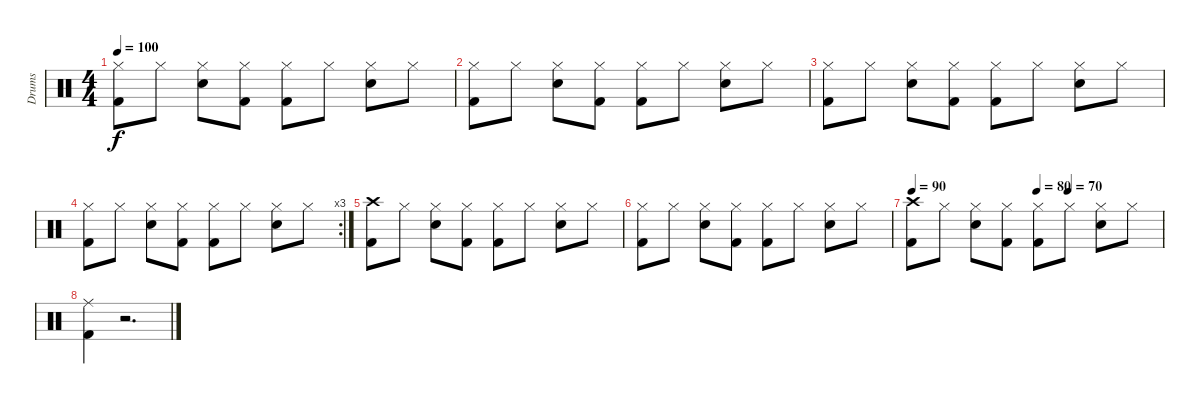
\track ("Drums" "Drums") {instrument percussion}
\staff {score}
\articulation defaults
\ts (4 4)
\tempo 100
\clef neutral
\ks c
("Hi-Hat (closed)" "Kick (hit) 2").8{dy f} "Hi-Hat (closed)".8 ("Hi-Hat (closed)" "Snare (hit) 2").8 ("Hi-Hat (closed)" "Kick (hit) 2").8 ("Hi-Hat (closed)" "Kick (hit) 2").8 "Hi-Hat (closed)".8 ("Hi-Hat (closed)" "Snare (hit) 2").8 "Hi-Hat (closed)".8 |
("Hi-Hat (closed)" "Kick (hit) 2").8 "Hi-Hat (closed)".8 ("Hi-Hat (closed)" "Snare (hit) 2").8 ("Hi-Hat (closed)" "Kick (hit) 2").8 ("Hi-Hat (closed)" "Kick (hit) 2").8 "Hi-Hat (closed)".8 ("Hi-Hat (closed)" "Snare (hit) 2").8 "Hi-Hat (closed)".8 |
("Hi-Hat (closed)" "Kick (hit) 2").8 "Hi-Hat (closed)".8 ("Hi-Hat (closed)" "Snare (hit) 2").8 ("Hi-Hat (closed)" "Kick (hit) 2").8 ("Hi-Hat (closed)" "Kick (hit) 2").8 "Hi-Hat (closed)".8 ("Hi-Hat (closed)" "Snare (hit) 2").8 "Hi-Hat (closed)".8 |
\rc 3
("Hi-Hat (closed)" "Kick (hit) 2").8 "Hi-Hat (closed)".8 ("Hi-Hat (closed)" "Snare (hit) 2").8 ("Hi-Hat (closed)" "Kick (hit) 2").8 ("Hi-Hat (closed)" "Kick (hit) 2").8 "Hi-Hat (closed)".8 ("Hi-Hat (closed)" "Snare (hit) 2").8 "Hi-Hat (closed)".8 |
("Crash high (hit)" "Kick (hit) 2").8 "Hi-Hat (closed)".8 ("Hi-Hat (closed)" "Snare (hit) 2").8 ("Hi-Hat (closed)" "Kick (hit) 2").8 ("Hi-Hat (closed)" "Kick (hit) 2").8 "Hi-Hat (closed)".8 ("Hi-Hat (closed)" "Snare (hit) 2").8 "Hi-Hat (closed)".8 |
("Hi-Hat (closed)" "Kick (hit) 2").8 "Hi-Hat (closed)".8 ("Hi-Hat (closed)" "Snare (hit) 2").8 ("Hi-Hat (closed)" "Kick (hit) 2").8 ("Hi-Hat (closed)" "Kick (hit) 2").8 "Hi-Hat (closed)".8 ("Hi-Hat (closed)" "Snare (hit) 2").8 "Hi-Hat (closed)".8 |
\tempo 90
\tempo (80 0.5)
\tempo (70 0.625)
("Crash high (hit)" "Kick (hit) 2").8 "Hi-Hat (closed)".8 ("Hi-Hat (closed)" "Snare (hit) 2").8 ("Hi-Hat (closed)" "Kick (hit) 2").8 ("Hi-Hat (closed)" "Kick (hit) 2").8 "Hi-Hat (closed)".8 ("Hi-Hat (closed)" "Snare (hit) 2").8 "Hi-Hat (closed)".8 |
("Ride (middle)" "Kick (hit) 2").4 r.2{d}
